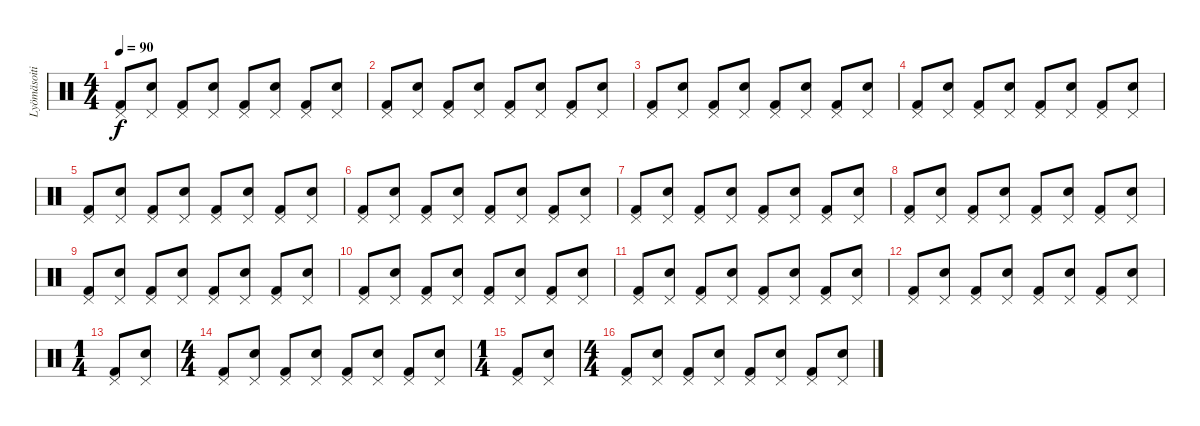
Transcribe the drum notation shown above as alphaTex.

\track ("Lyömäsoitin" "Lyömäsoiti") {instrument percussion}
\staff {score}
\articulation defaults
\ts (4 4)
\tempo 90
\clef neutral
\ks c
("Pedal Hi-Hat (hit)" "Kick (hit) 2").8{dy f} ("Pedal Hi-Hat (hit)" "Snare (hit) 2").8 ("Pedal Hi-Hat (hit)" "Kick (hit) 2").8 ("Pedal Hi-Hat (hit)" "Snare (hit) 2").8 ("Pedal Hi-Hat (hit)" "Kick (hit) 2").8 ("Pedal Hi-Hat (hit)" "Snare (hit) 2").8 ("Pedal Hi-Hat (hit)" "Kick (hit) 2").8 ("Pedal Hi-Hat (hit)" "Snare (hit) 2").8 |
("Pedal Hi-Hat (hit)" "Kick (hit) 2").8 ("Pedal Hi-Hat (hit)" "Snare (hit) 2").8 ("Pedal Hi-Hat (hit)" "Kick (hit) 2").8 ("Pedal Hi-Hat (hit)" "Snare (hit) 2").8 ("Pedal Hi-Hat (hit)" "Kick (hit) 2").8 ("Pedal Hi-Hat (hit)" "Snare (hit) 2").8 ("Pedal Hi-Hat (hit)" "Kick (hit) 2").8 ("Pedal Hi-Hat (hit)" "Snare (hit) 2").8 |
("Pedal Hi-Hat (hit)" "Kick (hit) 2").8 ("Pedal Hi-Hat (hit)" "Snare (hit) 2").8 ("Pedal Hi-Hat (hit)" "Kick (hit) 2").8 ("Pedal Hi-Hat (hit)" "Snare (hit) 2").8 ("Pedal Hi-Hat (hit)" "Kick (hit) 2").8 ("Pedal Hi-Hat (hit)" "Snare (hit) 2").8 ("Pedal Hi-Hat (hit)" "Kick (hit) 2").8 ("Pedal Hi-Hat (hit)" "Snare (hit) 2").8 |
("Pedal Hi-Hat (hit)" "Kick (hit) 2").8 ("Pedal Hi-Hat (hit)" "Snare (hit) 2").8 ("Pedal Hi-Hat (hit)" "Kick (hit) 2").8 ("Pedal Hi-Hat (hit)" "Snare (hit) 2").8 ("Pedal Hi-Hat (hit)" "Kick (hit) 2").8 ("Pedal Hi-Hat (hit)" "Snare (hit) 2").8 ("Pedal Hi-Hat (hit)" "Kick (hit) 2").8 ("Pedal Hi-Hat (hit)" "Snare (hit) 2").8 |
("Pedal Hi-Hat (hit)" "Kick (hit) 2").8 ("Pedal Hi-Hat (hit)" "Snare (hit) 2").8 ("Pedal Hi-Hat (hit)" "Kick (hit) 2").8 ("Pedal Hi-Hat (hit)" "Snare (hit) 2").8 ("Pedal Hi-Hat (hit)" "Kick (hit) 2").8 ("Pedal Hi-Hat (hit)" "Snare (hit) 2").8 ("Pedal Hi-Hat (hit)" "Kick (hit) 2").8 ("Pedal Hi-Hat (hit)" "Snare (hit) 2").8 |
("Pedal Hi-Hat (hit)" "Kick (hit) 2").8 ("Pedal Hi-Hat (hit)" "Snare (hit) 2").8 ("Pedal Hi-Hat (hit)" "Kick (hit) 2").8 ("Pedal Hi-Hat (hit)" "Snare (hit) 2").8 ("Pedal Hi-Hat (hit)" "Kick (hit) 2").8 ("Pedal Hi-Hat (hit)" "Snare (hit) 2").8 ("Pedal Hi-Hat (hit)" "Kick (hit) 2").8 ("Pedal Hi-Hat (hit)" "Snare (hit) 2").8 |
("Pedal Hi-Hat (hit)" "Kick (hit) 2").8 ("Pedal Hi-Hat (hit)" "Snare (hit) 2").8 ("Pedal Hi-Hat (hit)" "Kick (hit) 2").8 ("Pedal Hi-Hat (hit)" "Snare (hit) 2").8 ("Pedal Hi-Hat (hit)" "Kick (hit) 2").8 ("Pedal Hi-Hat (hit)" "Snare (hit) 2").8 ("Pedal Hi-Hat (hit)" "Kick (hit) 2").8 ("Pedal Hi-Hat (hit)" "Snare (hit) 2").8 |
("Pedal Hi-Hat (hit)" "Kick (hit) 2").8 ("Pedal Hi-Hat (hit)" "Snare (hit) 2").8 ("Pedal Hi-Hat (hit)" "Kick (hit) 2").8 ("Pedal Hi-Hat (hit)" "Snare (hit) 2").8 ("Pedal Hi-Hat (hit)" "Kick (hit) 2").8 ("Pedal Hi-Hat (hit)" "Snare (hit) 2").8 ("Pedal Hi-Hat (hit)" "Kick (hit) 2").8 ("Pedal Hi-Hat (hit)" "Snare (hit) 2").8 |
("Pedal Hi-Hat (hit)" "Kick (hit) 2").8 ("Pedal Hi-Hat (hit)" "Snare (hit) 2").8 ("Pedal Hi-Hat (hit)" "Kick (hit) 2").8 ("Pedal Hi-Hat (hit)" "Snare (hit) 2").8 ("Pedal Hi-Hat (hit)" "Kick (hit) 2").8 ("Pedal Hi-Hat (hit)" "Snare (hit) 2").8 ("Pedal Hi-Hat (hit)" "Kick (hit) 2").8 ("Pedal Hi-Hat (hit)" "Snare (hit) 2").8 |
("Pedal Hi-Hat (hit)" "Kick (hit) 2").8 ("Pedal Hi-Hat (hit)" "Snare (hit) 2").8 ("Pedal Hi-Hat (hit)" "Kick (hit) 2").8 ("Pedal Hi-Hat (hit)" "Snare (hit) 2").8 ("Pedal Hi-Hat (hit)" "Kick (hit) 2").8 ("Pedal Hi-Hat (hit)" "Snare (hit) 2").8 ("Pedal Hi-Hat (hit)" "Kick (hit) 2").8 ("Pedal Hi-Hat (hit)" "Snare (hit) 2").8 |
("Pedal Hi-Hat (hit)" "Kick (hit) 2").8 ("Pedal Hi-Hat (hit)" "Snare (hit) 2").8 ("Pedal Hi-Hat (hit)" "Kick (hit) 2").8 ("Pedal Hi-Hat (hit)" "Snare (hit) 2").8 ("Pedal Hi-Hat (hit)" "Kick (hit) 2").8 ("Pedal Hi-Hat (hit)" "Snare (hit) 2").8 ("Pedal Hi-Hat (hit)" "Kick (hit) 2").8 ("Pedal Hi-Hat (hit)" "Snare (hit) 2").8 |
("Pedal Hi-Hat (hit)" "Kick (hit) 2").8 ("Pedal Hi-Hat (hit)" "Snare (hit) 2").8 ("Pedal Hi-Hat (hit)" "Kick (hit) 2").8 ("Pedal Hi-Hat (hit)" "Snare (hit) 2").8 ("Pedal Hi-Hat (hit)" "Kick (hit) 2").8 ("Pedal Hi-Hat (hit)" "Snare (hit) 2").8 ("Pedal Hi-Hat (hit)" "Kick (hit) 2").8 ("Pedal Hi-Hat (hit)" "Snare (hit) 2").8 |
\ts (1 4)
("Pedal Hi-Hat (hit)" "Kick (hit) 2").8 ("Pedal Hi-Hat (hit)" "Snare (hit) 2").8 |
\ts (4 4)
("Pedal Hi-Hat (hit)" "Kick (hit) 2").8 ("Pedal Hi-Hat (hit)" "Snare (hit) 2").8 ("Pedal Hi-Hat (hit)" "Kick (hit) 2").8 ("Pedal Hi-Hat (hit)" "Snare (hit) 2").8 ("Pedal Hi-Hat (hit)" "Kick (hit) 2").8 ("Pedal Hi-Hat (hit)" "Snare (hit) 2").8 ("Pedal Hi-Hat (hit)" "Kick (hit) 2").8 ("Pedal Hi-Hat (hit)" "Snare (hit) 2").8 |
\ts (1 4)
("Pedal Hi-Hat (hit)" "Kick (hit) 2").8 ("Pedal Hi-Hat (hit)" "Snare (hit) 2").8 |
\ts (4 4)
("Pedal Hi-Hat (hit)" "Kick (hit) 2").8 ("Pedal Hi-Hat (hit)" "Snare (hit) 2").8 ("Pedal Hi-Hat (hit)" "Kick (hit) 2").8 ("Pedal Hi-Hat (hit)" "Snare (hit) 2").8 ("Pedal Hi-Hat (hit)" "Kick (hit) 2").8 ("Pedal Hi-Hat (hit)" "Snare (hit) 2").8 ("Pedal Hi-Hat (hit)" "Kick (hit) 2").8 ("Pedal Hi-Hat (hit)" "Snare (hit) 2").8
